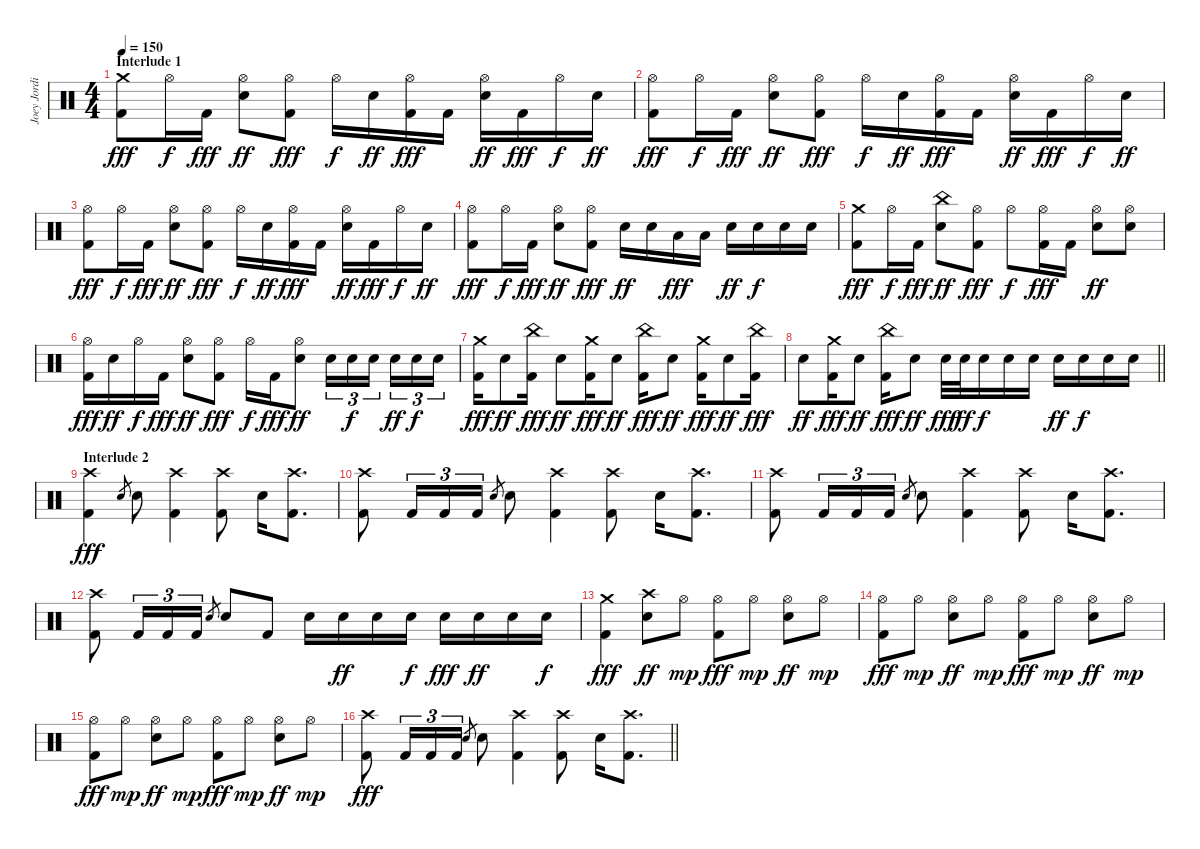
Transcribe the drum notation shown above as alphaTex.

\track ("Joey Jordison" "Joey Jordi") {instrument percussion}
\staff {score}
\articulation defaults
\ts (4 4)
\section ("" "Interlude 1")
\tempo 150
\clef neutral
\ks c
("Crash medium (hit)" "Kick (hit) 2").8{dy fff} "Hi-Hat (open)".16{dy f} "Kick (hit) 2".16{dy fff} ("Hi-Hat (open)" "Electric Snare (hit)").8{dy ff} ("Hi-Hat (open)" "Kick (hit) 2").8{dy fff} "Hi-Hat (open)".16{dy f} "Electric Snare (hit)".16{dy ff} ("Hi-Hat (open)" "Kick (hit) 2").16{dy fff} "Kick (hit) 2".16 ("Hi-Hat (open)" "Electric Snare (hit)").16{dy ff} "Kick (hit) 2".16{dy fff} "Hi-Hat (open)".16{dy f} "Electric Snare (hit)".16{dy ff} |
("Hi-Hat (open)" "Kick (hit) 2").8{dy fff} "Hi-Hat (open)".16{dy f} "Kick (hit) 2".16{dy fff} ("Hi-Hat (open)" "Electric Snare (hit)").8{dy ff} ("Hi-Hat (open)" "Kick (hit) 2").8{dy fff} "Hi-Hat (open)".16{dy f} "Electric Snare (hit)".16{dy ff} ("Hi-Hat (open)" "Kick (hit) 2").16{dy fff} "Kick (hit) 2".16 ("Hi-Hat (open)" "Electric Snare (hit)").16{dy ff} "Kick (hit) 2".16{dy fff} "Hi-Hat (open)".16{dy f} "Electric Snare (hit)".16{dy ff} |
("Hi-Hat (open)" "Kick (hit) 2").8{dy fff} "Hi-Hat (open)".16{dy f} "Kick (hit) 2".16{dy fff} ("Hi-Hat (open)" "Electric Snare (hit)").8{dy ff} ("Hi-Hat (open)" "Kick (hit) 2").8{dy fff} "Hi-Hat (open)".16{dy f} "Electric Snare (hit)".16{dy ff} ("Hi-Hat (open)" "Kick (hit) 2").16{dy fff} "Kick (hit) 2".16 ("Hi-Hat (open)" "Electric Snare (hit)").16{dy ff} "Kick (hit) 2".16{dy fff} "Hi-Hat (open)".16{dy f} "Electric Snare (hit)".16{dy ff} |
("Hi-Hat (open)" "Kick (hit) 2").8{dy fff} "Hi-Hat (open)".16{dy f} "Kick (hit) 2".16{dy fff} ("Hi-Hat (open)" "Electric Snare (hit)").8{dy ff} ("Hi-Hat (open)" "Kick (hit) 2").8{dy fff} "Electric Snare (hit)".16{dy ff} "Electric Snare (hit)".16 "Low Tom (hit)".16{dy fff} "Low Tom (hit)".16 "Electric Snare (hit)".16{dy ff} "Electric Snare (hit)".16{dy f} "Electric Snare (hit)".16 "Electric Snare (hit)".16 |
("Crash medium (hit)" "Kick (hit) 2").8{dy fff} "Hi-Hat (open)".16{dy f} "Kick (hit) 2".16{dy fff} ("China (hit)" "Electric Snare (hit)").8{dy ff} ("Hi-Hat (open)" "Kick (hit) 2").8{dy fff} "Hi-Hat (open)".8{dy f} ("Hi-Hat (open)" "Kick (hit) 2").16{dy fff} "Kick (hit) 2".16 ("Hi-Hat (open)" "Electric Snare (hit)").8{dy ff} ("Hi-Hat (open)" "Electric Snare (hit)").8 |
("Hi-Hat (open)" "Kick (hit) 2").16{dy fff} "Electric Snare (hit)".16{dy ff} "Hi-Hat (open)".16{dy f} "Kick (hit) 2".16{dy fff} ("Hi-Hat (open)" "Electric Snare (hit)").8{dy ff} ("Hi-Hat (open)" "Kick (hit) 2").8{dy fff} "Hi-Hat (open)".16{dy f} "Kick (hit) 2".16{dy fff} ("Hi-Hat (open)" "Electric Snare (hit)").8{dy ff} "Electric Snare (hit)".16{tu (3 2)} "Electric Snare (hit)".16{tu (3 2) dy f} "Electric Snare (hit)".16{tu (3 2) beam splitsecondary} "Electric Snare (hit)".16{tu (3 2) dy ff} "Electric Snare (hit)".16{tu (3 2) dy f} "Electric Snare (hit)".16{tu (3 2)} |
("Crash medium (hit)" "Kick (hit) 2").16{dy fff} "Electric Snare (hit)".8{dy ff} ("China (hit)" "Kick (hit) 2").16{dy fff} "Electric Snare (hit)".8{dy ff} ("Crash medium (hit)" "Kick (hit) 2").16{dy fff} "Electric Snare (hit)".8{dy ff} ("China (hit)" "Kick (hit) 2").16{dy fff} "Electric Snare (hit)".8{dy ff} ("Crash medium (hit)" "Kick (hit) 2").16{dy fff} "Electric Snare (hit)".8{dy ff} ("China (hit)" "Kick (hit) 2").16{dy fff} |
\barLineRight lightlight "Electric Snare (hit)".8{dy ff}
("Crash medium (hit)" "Kick (hit) 2").16{dy fff} "Electric Snare (hit)".8{dy ff} ("China (hit)" "Kick (hit) 2").16{dy fff} "Electric Snare (hit)".8{dy ff} "Electric Snare (hit)".32{dy fff} "Electric Snare (hit)".32{dy ff} "Electric Snare (hit)".16{dy f} "Electric Snare (hit)".16 "Electric Snare (hit)".16 "Electric Snare (hit)".16{dy ff} "Electric Snare (hit)".16{dy f} "Electric Snare (hit)".16 "Electric Snare (hit)".16 |
\section ("" "Interlude 2")
("Crash high (hit)" "Kick (hit) 2").4{dy fff} "Electric Snare (hit)".8{gr} "Electric Snare (hit)".8 ("Crash high (hit)" "Kick (hit) 2").4 ("Crash high (hit)" "Kick (hit) 2").8 "Electric Snare (hit)".16 ("Crash high (hit)" "Kick (hit) 2").8{d} |
("Crash high (hit)" "Kick (hit) 2").8 "Kick (hit) 2".16{tu (3 2)} "Kick (hit) 2".16{tu (3 2)} "Kick (hit) 2".16{tu (3 2)} "Electric Snare (hit)".8{gr} "Electric Snare (hit)".8 ("Crash high (hit)" "Kick (hit) 2").4 ("Crash high (hit)" "Kick (hit) 2").8 "Electric Snare (hit)".16 ("Crash high (hit)" "Kick (hit) 2").8{d} |
("Crash high (hit)" "Kick (hit) 2").8 "Kick (hit) 2".16{tu (3 2)} "Kick (hit) 2".16{tu (3 2)} "Kick (hit) 2".16{tu (3 2)} "Electric Snare (hit)".8{gr} "Electric Snare (hit)".8 ("Crash high (hit)" "Kick (hit) 2").4 ("Crash high (hit)" "Kick (hit) 2").8 "Electric Snare (hit)".16 ("Crash high (hit)" "Kick (hit) 2").8{d} |
("Crash high (hit)" "Kick (hit) 2").8 "Kick (hit) 2".16{tu (3 2)} "Kick (hit) 2".16{tu (3 2)} "Kick (hit) 2".16{tu (3 2)} "Electric Snare (hit)".8{gr} "Electric Snare (hit)".8 "Kick (hit) 2".8 "Electric Snare (hit)".16 "Electric Snare (hit)".16{dy ff} "Electric Snare (hit)".16 "Electric Snare (hit)".16{dy f} "Electric Snare (hit)".16{dy fff} "Electric Snare (hit)".16{dy ff} "Electric Snare (hit)".16 "Electric Snare (hit)".16{dy f} |
("Crash medium (hit)" "Kick (hit) 2").4{dy fff} ("Crash high (hit)" "Electric Snare (hit)").8{dy ff} "Hi-Hat (open)".8{dy mp} ("Hi-Hat (open)" "Kick (hit) 2").8{dy fff} "Hi-Hat (open)".8{dy mp} ("Hi-Hat (open)" "Electric Snare (hit)").8{dy ff} "Hi-Hat (open)".8{dy mp} |
("Hi-Hat (open)" "Kick (hit) 2").8{dy fff} "Hi-Hat (open)".8{dy mp} ("Hi-Hat (open)" "Electric Snare (hit)").8{dy ff} "Hi-Hat (open)".8{dy mp} ("Hi-Hat (open)" "Kick (hit) 2").8{dy fff} "Hi-Hat (open)".8{dy mp} ("Hi-Hat (open)" "Electric Snare (hit)").8{dy ff} "Hi-Hat (open)".8{dy mp} |
("Hi-Hat (open)" "Kick (hit) 2").8{dy fff} "Hi-Hat (open)".8{dy mp} ("Hi-Hat (open)" "Electric Snare (hit)").8{dy ff} "Hi-Hat (open)".8{dy mp} ("Hi-Hat (open)" "Kick (hit) 2").8{dy fff} "Hi-Hat (open)".8{dy mp} ("Hi-Hat (open)" "Electric Snare (hit)").8{dy ff} "Hi-Hat (open)".8{dy mp} |
\barLineRight lightlight
("Crash high (hit)" "Kick (hit) 2").8{dy fff} "Kick (hit) 2".16{tu (3 2)} "Kick (hit) 2".16{tu (3 2)} "Kick (hit) 2".16{tu (3 2)} "Electric Snare (hit)".8{gr} "Electric Snare (hit)".8 ("Crash high (hit)" "Kick (hit) 2").4 ("Crash high (hit)" "Kick (hit) 2").8 "Electric Snare (hit)".16 ("Crash high (hit)" "Kick (hit) 2").8{d}
